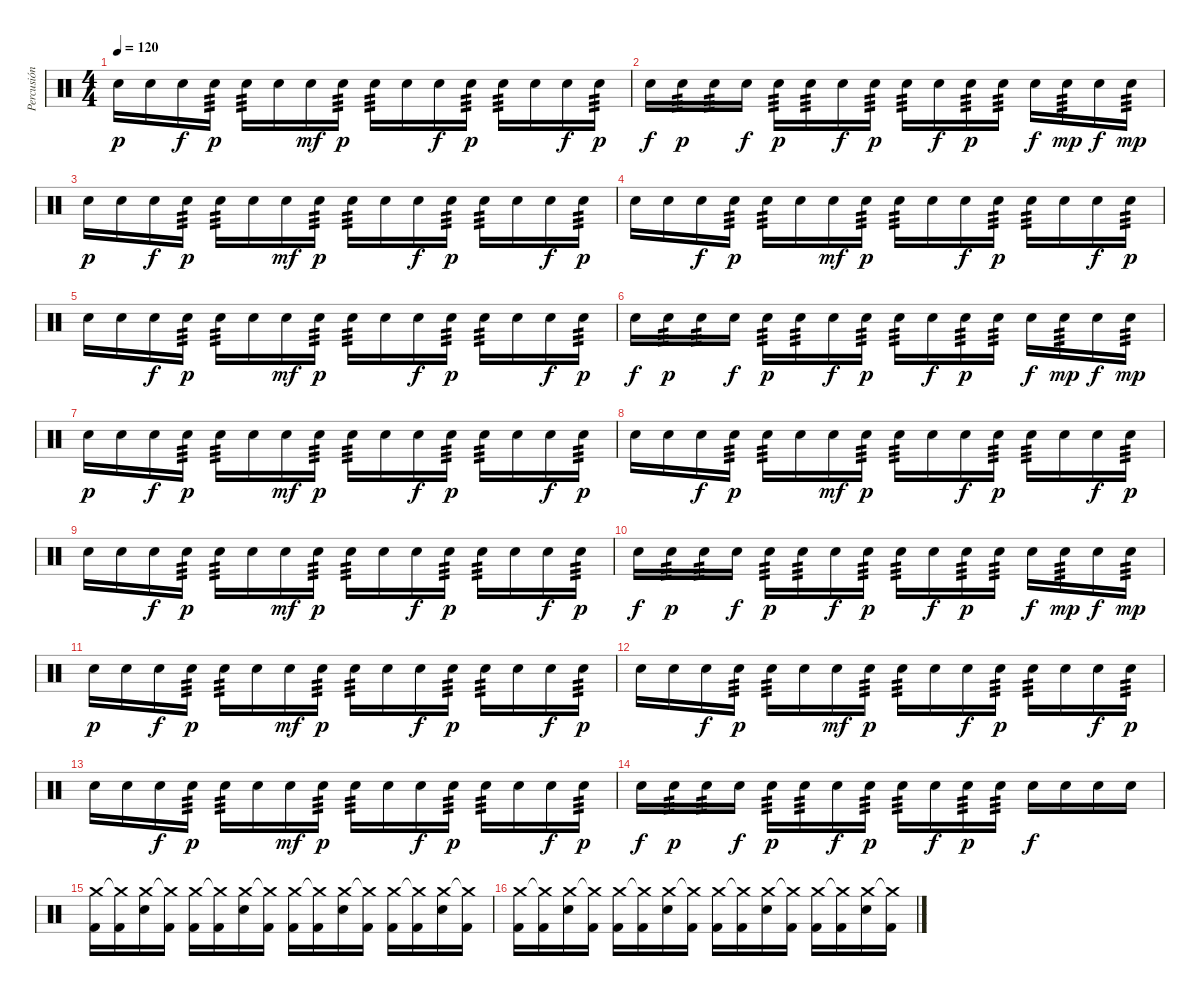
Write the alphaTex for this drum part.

\track ("Percusión" "Percusión") {instrument percussion}
\staff {score}
\articulation defaults
\ts (4 4)
\tempo 120
\clef neutral
\ks c "Electric Snare (hit)".16{dy p} "Electric Snare (hit)".16 "Electric Snare (hit)".16{dy f} "Electric Snare (hit)".16{tp 3 dy p} "Electric Snare (hit)".16{tp 3} "Electric Snare (hit)".16 "Electric Snare (hit)".16{dy mf} "Electric Snare (hit)".16{tp 3 dy p} "Electric Snare (hit)".16{tp 3} "Electric Snare (hit)".16 "Electric Snare (hit)".16{dy f} "Electric Snare (hit)".16{tp 3 dy p} "Electric Snare (hit)".16{tp 3} "Electric Snare (hit)".16 "Electric Snare (hit)".16{dy f} "Electric Snare (hit)".16{tp 3 dy p}
|
"Electric Snare (hit)".16{dy f} "Electric Snare (hit)".16{tp 3 dy p} "Electric Snare (hit)".16{tp 3} "Electric Snare (hit)".16{dy f} "Electric Snare (hit)".16{tp 3 dy p} "Electric Snare (hit)".16{tp 3} "Electric Snare (hit)".16{dy f} "Electric Snare (hit)".16{tp 3 dy p} "Electric Snare (hit)".16{tp 3} "Electric Snare (hit)".16{dy f} "Electric Snare (hit)".16{tp 3 dy p} "Electric Snare (hit)".16{tp 3} "Electric Snare (hit)".16{dy f} "Electric Snare (hit)".16{tp 3 dy mp} "Electric Snare (hit)".16{dy f} "Electric Snare (hit)".16{tp 3 dy mp} |
"Electric Snare (hit)".16{dy p} "Electric Snare (hit)".16 "Electric Snare (hit)".16{dy f} "Electric Snare (hit)".16{tp 3 dy p} "Electric Snare (hit)".16{tp 3} "Electric Snare (hit)".16 "Electric Snare (hit)".16{dy mf} "Electric Snare (hit)".16{tp 3 dy p} "Electric Snare (hit)".16{tp 3} "Electric Snare (hit)".16 "Electric Snare (hit)".16{dy f} "Electric Snare (hit)".16{tp 3 dy p} "Electric Snare (hit)".16{tp 3} "Electric Snare (hit)".16 "Electric Snare (hit)".16{dy f} "Electric Snare (hit)".16{tp 3 dy p} |
"Electric Snare (hit)".16 "Electric Snare (hit)".16 "Electric Snare (hit)".16{dy f} "Electric Snare (hit)".16{tp 3 dy p} "Electric Snare (hit)".16{tp 3} "Electric Snare (hit)".16 "Electric Snare (hit)".16{dy mf} "Electric Snare (hit)".16{tp 3 dy p} "Electric Snare (hit)".16{tp 3} "Electric Snare (hit)".16 "Electric Snare (hit)".16{dy f} "Electric Snare (hit)".16{tp 3 dy p} "Electric Snare (hit)".16{tp 3} "Electric Snare (hit)".16 "Electric Snare (hit)".16{dy f} "Electric Snare (hit)".16{tp 3 dy p} |
"Electric Snare (hit)".16 "Electric Snare (hit)".16 "Electric Snare (hit)".16{dy f} "Electric Snare (hit)".16{tp 3 dy p} "Electric Snare (hit)".16{tp 3} "Electric Snare (hit)".16 "Electric Snare (hit)".16{dy mf} "Electric Snare (hit)".16{tp 3 dy p} "Electric Snare (hit)".16{tp 3} "Electric Snare (hit)".16 "Electric Snare (hit)".16{dy f} "Electric Snare (hit)".16{tp 3 dy p} "Electric Snare (hit)".16{tp 3} "Electric Snare (hit)".16 "Electric Snare (hit)".16{dy f} "Electric Snare (hit)".16{tp 3 dy p} |
"Electric Snare (hit)".16{dy f} "Electric Snare (hit)".16{tp 3 dy p} "Electric Snare (hit)".16{tp 3} "Electric Snare (hit)".16{dy f} "Electric Snare (hit)".16{tp 3 dy p} "Electric Snare (hit)".16{tp 3} "Electric Snare (hit)".16{dy f} "Electric Snare (hit)".16{tp 3 dy p} "Electric Snare (hit)".16{tp 3} "Electric Snare (hit)".16{dy f} "Electric Snare (hit)".16{tp 3 dy p} "Electric Snare (hit)".16{tp 3} "Electric Snare (hit)".16{dy f} "Electric Snare (hit)".16{tp 3 dy mp} "Electric Snare (hit)".16{dy f} "Electric Snare (hit)".16{tp 3 dy mp} |
"Electric Snare (hit)".16{dy p} "Electric Snare (hit)".16 "Electric Snare (hit)".16{dy f} "Electric Snare (hit)".16{tp 3 dy p} "Electric Snare (hit)".16{tp 3} "Electric Snare (hit)".16 "Electric Snare (hit)".16{dy mf} "Electric Snare (hit)".16{tp 3 dy p} "Electric Snare (hit)".16{tp 3} "Electric Snare (hit)".16 "Electric Snare (hit)".16{dy f} "Electric Snare (hit)".16{tp 3 dy p} "Electric Snare (hit)".16{tp 3} "Electric Snare (hit)".16 "Electric Snare (hit)".16{dy f} "Electric Snare (hit)".16{tp 3 dy p} |
"Electric Snare (hit)".16 "Electric Snare (hit)".16 "Electric Snare (hit)".16{dy f} "Electric Snare (hit)".16{tp 3 dy p} "Electric Snare (hit)".16{tp 3} "Electric Snare (hit)".16 "Electric Snare (hit)".16{dy mf} "Electric Snare (hit)".16{tp 3 dy p} "Electric Snare (hit)".16{tp 3} "Electric Snare (hit)".16 "Electric Snare (hit)".16{dy f} "Electric Snare (hit)".16{tp 3 dy p} "Electric Snare (hit)".16{tp 3} "Electric Snare (hit)".16 "Electric Snare (hit)".16{dy f} "Electric Snare (hit)".16{tp 3 dy p} |
"Electric Snare (hit)".16 "Electric Snare (hit)".16 "Electric Snare (hit)".16{dy f} "Electric Snare (hit)".16{tp 3 dy p} "Electric Snare (hit)".16{tp 3} "Electric Snare (hit)".16 "Electric Snare (hit)".16{dy mf} "Electric Snare (hit)".16{tp 3 dy p} "Electric Snare (hit)".16{tp 3} "Electric Snare (hit)".16 "Electric Snare (hit)".16{dy f} "Electric Snare (hit)".16{tp 3 dy p} "Electric Snare (hit)".16{tp 3} "Electric Snare (hit)".16 "Electric Snare (hit)".16{dy f} "Electric Snare (hit)".16{tp 3 dy p} |
"Electric Snare (hit)".16{dy f} "Electric Snare (hit)".16{tp 3 dy p} "Electric Snare (hit)".16{tp 3} "Electric Snare (hit)".16{dy f} "Electric Snare (hit)".16{tp 3 dy p} "Electric Snare (hit)".16{tp 3} "Electric Snare (hit)".16{dy f} "Electric Snare (hit)".16{tp 3 dy p} "Electric Snare (hit)".16{tp 3} "Electric Snare (hit)".16{dy f} "Electric Snare (hit)".16{tp 3 dy p} "Electric Snare (hit)".16{tp 3} "Electric Snare (hit)".16{dy f} "Electric Snare (hit)".16{tp 3 dy mp} "Electric Snare (hit)".16{dy f} "Electric Snare (hit)".16{tp 3 dy mp} |
"Electric Snare (hit)".16{dy p} "Electric Snare (hit)".16 "Electric Snare (hit)".16{dy f} "Electric Snare (hit)".16{tp 3 dy p} "Electric Snare (hit)".16{tp 3} "Electric Snare (hit)".16 "Electric Snare (hit)".16{dy mf} "Electric Snare (hit)".16{tp 3 dy p} "Electric Snare (hit)".16{tp 3} "Electric Snare (hit)".16 "Electric Snare (hit)".16{dy f} "Electric Snare (hit)".16{tp 3 dy p} "Electric Snare (hit)".16{tp 3} "Electric Snare (hit)".16 "Electric Snare (hit)".16{dy f} "Electric Snare (hit)".16{tp 3 dy p} |
"Electric Snare (hit)".16 "Electric Snare (hit)".16 "Electric Snare (hit)".16{dy f} "Electric Snare (hit)".16{tp 3 dy p} "Electric Snare (hit)".16{tp 3} "Electric Snare (hit)".16 "Electric Snare (hit)".16{dy mf} "Electric Snare (hit)".16{tp 3 dy p} "Electric Snare (hit)".16{tp 3} "Electric Snare (hit)".16 "Electric Snare (hit)".16{dy f} "Electric Snare (hit)".16{tp 3 dy p} "Electric Snare (hit)".16{tp 3} "Electric Snare (hit)".16 "Electric Snare (hit)".16{dy f} "Electric Snare (hit)".16{tp 3 dy p} |
"Electric Snare (hit)".16 "Electric Snare (hit)".16 "Electric Snare (hit)".16{dy f} "Electric Snare (hit)".16{tp 3 dy p} "Electric Snare (hit)".16{tp 3} "Electric Snare (hit)".16 "Electric Snare (hit)".16{dy mf} "Electric Snare (hit)".16{tp 3 dy p} "Electric Snare (hit)".16{tp 3} "Electric Snare (hit)".16 "Electric Snare (hit)".16{dy f} "Electric Snare (hit)".16{tp 3 dy p} "Electric Snare (hit)".16{tp 3} "Electric Snare (hit)".16 "Electric Snare (hit)".16{dy f} "Electric Snare (hit)".16{tp 3 dy p} |
"Electric Snare (hit)".16{dy f} "Electric Snare (hit)".16{tp 3 dy p} "Electric Snare (hit)".16{tp 3} "Electric Snare (hit)".16{dy f} "Electric Snare (hit)".16{tp 3 dy p} "Electric Snare (hit)".16{tp 3} "Electric Snare (hit)".16{dy f} "Electric Snare (hit)".16{tp 3 dy p} "Electric Snare (hit)".16{tp 3} "Electric Snare (hit)".16{dy f} "Electric Snare (hit)".16{tp 3 dy p} "Electric Snare (hit)".16{tp 3} "Electric Snare (hit)".16{dy f} "Electric Snare (hit)".16 "Electric Snare (hit)".16 "Electric Snare (hit)".16 |
("Kick (hit) 2" "Crash medium (hit)").16 ("Kick (hit) 2" "Crash medium (hit)"{t}).16 ("Electric Snare (hit)" "Crash medium (hit)").16 ("Kick (hit) 2" "Crash medium (hit)"{t}).16 ("Kick (hit) 2" "Crash medium (hit)").16 ("Kick (hit) 2" "Crash medium (hit)"{t}).16 ("Electric Snare (hit)" "Crash medium (hit)").16 ("Kick (hit) 2" "Crash medium (hit)"{t}).16 ("Kick (hit) 2" "Crash medium (hit)").16 ("Kick (hit) 2" "Crash medium (hit)"{t}).16 ("Electric Snare (hit)" "Crash medium (hit)").16 ("Kick (hit) 2" "Crash medium (hit)"{t}).16 ("Kick (hit) 2" "Crash medium (hit)").16 ("Kick (hit) 2" "Crash medium (hit)"{t}).16 ("Electric Snare (hit)" "Crash medium (hit)").16 ("Kick (hit) 2" "Crash medium (hit)"{t}).16 |
("Kick (hit) 2" "Crash medium (hit)").16 ("Kick (hit) 2" "Crash medium (hit)"{t}).16 ("Electric Snare (hit)" "Crash medium (hit)").16 ("Kick (hit) 2" "Crash medium (hit)"{t}).16 ("Kick (hit) 2" "Crash medium (hit)").16 ("Kick (hit) 2" "Crash medium (hit)"{t}).16 ("Electric Snare (hit)" "Crash medium (hit)").16 ("Kick (hit) 2" "Crash medium (hit)"{t}).16 ("Kick (hit) 2" "Crash medium (hit)").16 ("Kick (hit) 2" "Crash medium (hit)"{t}).16 ("Electric Snare (hit)" "Crash medium (hit)").16 ("Kick (hit) 2" "Crash medium (hit)"{t}).16 ("Kick (hit) 2" "Crash medium (hit)").16 ("Kick (hit) 2" "Crash medium (hit)"{t}).16 ("Electric Snare (hit)" "Crash medium (hit)").16 ("Kick (hit) 2" "Crash medium (hit)"{t}).16
